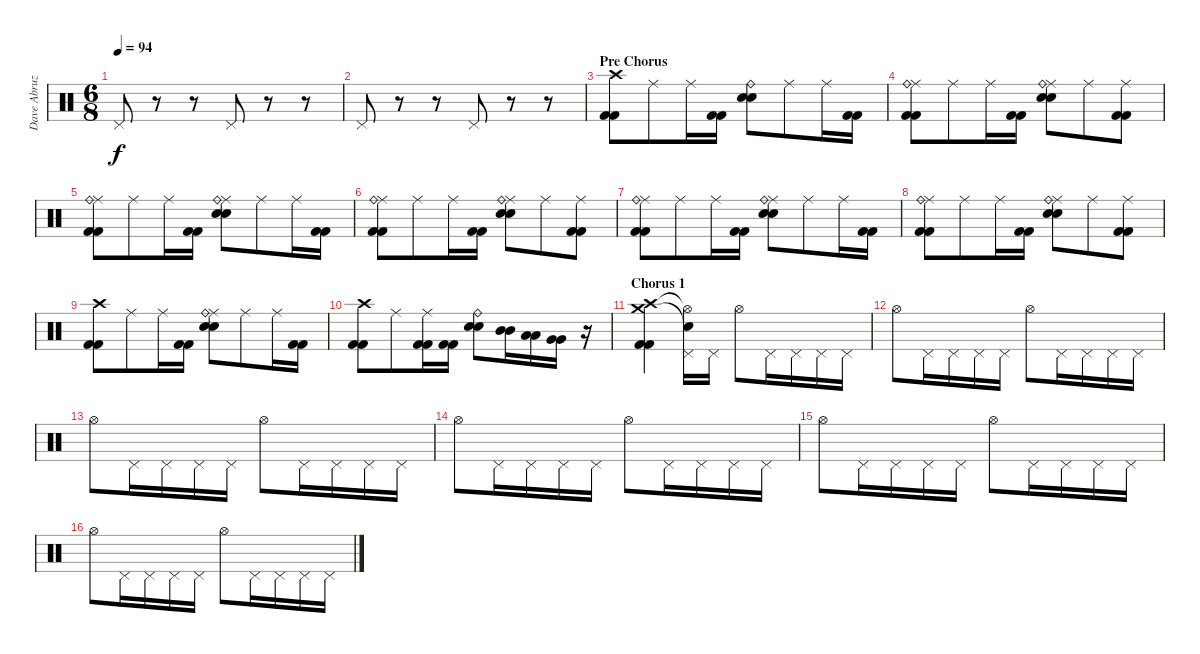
\track ("Dave Abruzzese" "Dave Abruz") {instrument percussion}
\staff {score}
\articulation defaults
\ts (6 8)
\tempo 94
\clef neutral
\ks c "Pedal Hi-Hat (hit)".8{dy f}
r.8 r.8 "Pedal Hi-Hat (hit)".8 r.8 r.8 |
"Pedal Hi-Hat (hit)".8 r.8 r.8 "Pedal Hi-Hat (hit)".8 r.8 r.8 |
\section ("" "Pre Chorus")
("Crash high (hit)" "Kick (hit) 2" "Kick (hit) 2").8 "Ride (middle)".8 "Ride (middle)".16 ("Kick (hit) 2" "Kick (hit) 2").16 ("Ride (bell)" "Electric Snare (hit)" "Electric Snare (hit)").8 "Ride (middle)".8 "Ride (middle)".16 ("Kick (hit) 2" "Kick (hit) 2").16 |
("Ride (middle)" "Ride (bell)" "Kick (hit) 2" "Kick (hit) 2").8 "Ride (middle)".8 "Ride (middle)".16 ("Kick (hit) 2" "Kick (hit) 2").16 ("Ride (middle)" "Ride (bell)" "Electric Snare (hit)" "Electric Snare (hit)").8 "Ride (middle)".8 ("Ride (middle)" "Kick (hit) 2" "Kick (hit) 2").8 |
("Ride (middle)" "Ride (bell)" "Kick (hit) 2" "Kick (hit) 2").8 "Ride (middle)".8 "Ride (middle)".16 ("Kick (hit) 2" "Kick (hit) 2").16 ("Ride (middle)" "Ride (bell)" "Electric Snare (hit)" "Electric Snare (hit)").8 "Ride (middle)".8 "Ride (middle)".16 ("Kick (hit) 2" "Kick (hit) 2").16 |
("Ride (middle)" "Ride (bell)" "Kick (hit) 2" "Kick (hit) 2").8 "Ride (middle)".8 "Ride (middle)".16 ("Kick (hit) 2" "Kick (hit) 2").16 ("Ride (middle)" "Ride (bell)" "Electric Snare (hit)" "Electric Snare (hit)").8 "Ride (middle)".8 ("Ride (middle)" "Kick (hit) 2" "Kick (hit) 2").8 |
("Ride (middle)" "Ride (bell)" "Kick (hit) 2" "Kick (hit) 2").8 "Ride (middle)".8 "Ride (middle)".16 ("Kick (hit) 2" "Kick (hit) 2").16 ("Ride (middle)" "Ride (bell)" "Electric Snare (hit)" "Electric Snare (hit)").8 "Ride (middle)".8 "Ride (middle)".16 ("Kick (hit) 2" "Kick (hit) 2").16 |
("Ride (middle)" "Ride (bell)" "Kick (hit) 2" "Kick (hit) 2").8 "Ride (middle)".8 "Ride (middle)".16 ("Kick (hit) 2" "Kick (hit) 2").16 ("Ride (middle)" "Ride (bell)" "Electric Snare (hit)" "Electric Snare (hit)").8 "Ride (middle)".8 ("Ride (middle)" "Kick (hit) 2" "Kick (hit) 2").8 |
("Crash high (hit)" "Kick (hit) 2" "Kick (hit) 2").8 "Ride (middle)".8 "Ride (middle)".16 ("Kick (hit) 2" "Kick (hit) 2").16 ("Ride (middle)" "Ride (bell)" "Electric Snare (hit)" "Electric Snare (hit)").8 "Ride (middle)".8 "Ride (middle)".16 ("Kick (hit) 2" "Kick (hit) 2").16 |
("Crash high (hit)" "Kick (hit) 2" "Kick (hit) 2").8 "Ride (middle)".8 ("Ride (middle)" "Kick (hit) 2" "Kick (hit) 2").16 ("Kick (hit) 2" "Kick (hit) 2").16 ("Ride (bell)" "Electric Snare (hit)" "Electric Snare (hit)").8 ("Mid Tom (hit)" "Mid Tom (hit)").16 ("Low Tom (hit)" "Low Tom (hit)").16 ("Very Low Tom (hit)" "Very Low Tom (hit)").16 r.16 |
\section ("" "Chorus 1")
("Crash medium (hit)" "Crash high (hit)" "Kick (hit) 2" "Kick (hit) 2").4 ("Snare (hit)"{t} "Hi-Hat (open)"{t} "Pedal Hi-Hat (hit)").16 "Pedal Hi-Hat (hit)".16 "Hi-Hat (open)".8 "Pedal Hi-Hat (hit)".16 "Pedal Hi-Hat (hit)".16 "Pedal Hi-Hat (hit)".16 "Pedal Hi-Hat (hit)".16 |
"Hi-Hat (open)".8 "Pedal Hi-Hat (hit)".16 "Pedal Hi-Hat (hit)".16 "Pedal Hi-Hat (hit)".16 "Pedal Hi-Hat (hit)".16 "Hi-Hat (open)".8 "Pedal Hi-Hat (hit)".16 "Pedal Hi-Hat (hit)".16 "Pedal Hi-Hat (hit)".16 "Pedal Hi-Hat (hit)".16 |
"Hi-Hat (open)".8 "Pedal Hi-Hat (hit)".16 "Pedal Hi-Hat (hit)".16 "Pedal Hi-Hat (hit)".16 "Pedal Hi-Hat (hit)".16 "Hi-Hat (open)".8 "Pedal Hi-Hat (hit)".16 "Pedal Hi-Hat (hit)".16 "Pedal Hi-Hat (hit)".16 "Pedal Hi-Hat (hit)".16 |
"Hi-Hat (open)".8 "Pedal Hi-Hat (hit)".16 "Pedal Hi-Hat (hit)".16 "Pedal Hi-Hat (hit)".16 "Pedal Hi-Hat (hit)".16 "Hi-Hat (open)".8 "Pedal Hi-Hat (hit)".16 "Pedal Hi-Hat (hit)".16 "Pedal Hi-Hat (hit)".16 "Pedal Hi-Hat (hit)".16 |
"Hi-Hat (open)".8 "Pedal Hi-Hat (hit)".16 "Pedal Hi-Hat (hit)".16 "Pedal Hi-Hat (hit)".16 "Pedal Hi-Hat (hit)".16 "Hi-Hat (open)".8 "Pedal Hi-Hat (hit)".16 "Pedal Hi-Hat (hit)".16 "Pedal Hi-Hat (hit)".16 "Pedal Hi-Hat (hit)".16 |
"Hi-Hat (open)".8 "Pedal Hi-Hat (hit)".16 "Pedal Hi-Hat (hit)".16 "Pedal Hi-Hat (hit)".16 "Pedal Hi-Hat (hit)".16 "Hi-Hat (open)".8 "Pedal Hi-Hat (hit)".16 "Pedal Hi-Hat (hit)".16 "Pedal Hi-Hat (hit)".16 "Pedal Hi-Hat (hit)".16
